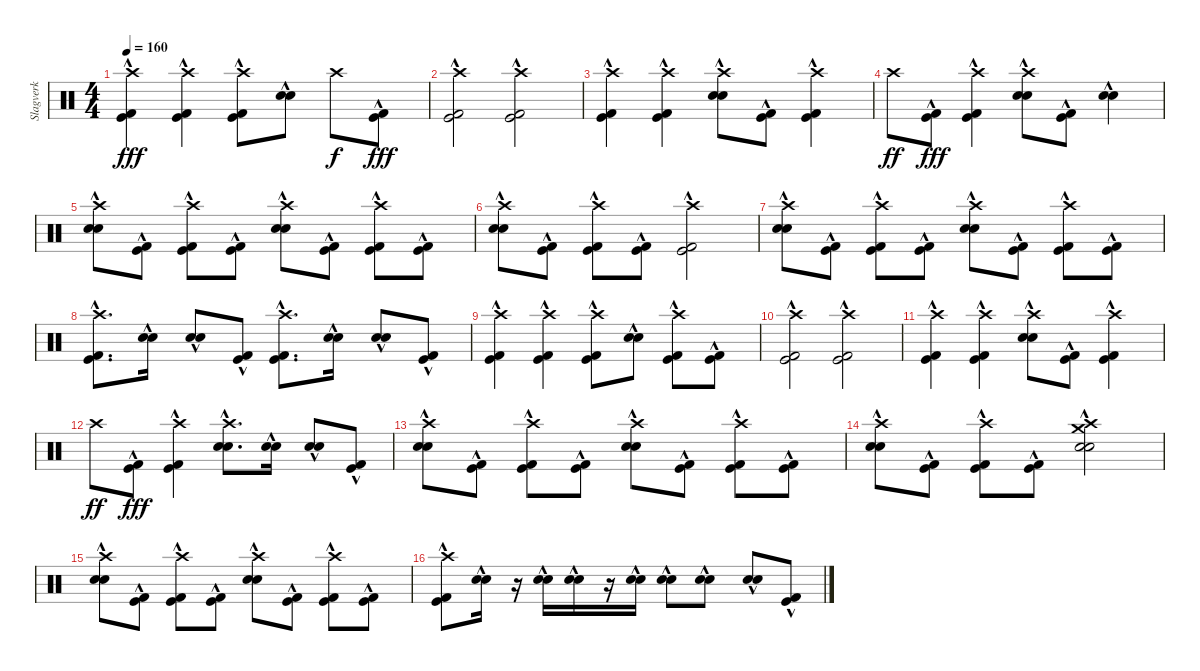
\track ("Slagverk" "Slagverk") {instrument percussion}
\staff {score}
\articulation defaults
\ts (4 4)
\tempo 160
\clef neutral
\ks c
("Crash high (hit)" "Kick (hit)"{hac} "Kick (hit) 2"{hac}).4{dy fff} ("Crash high (hit)" "Kick (hit)"{hac} "Kick (hit) 2"{hac}).4 ("Crash high (hit)" "Kick (hit)"{hac} "Kick (hit) 2"{hac}).8 ("Electric Snare (hit)"{hac} "Snare (hit) 2"{hac}).8 "Crash high (hit)".8{dy f} ("Kick (hit)"{hac} "Kick (hit) 2"{hac}).8{dy fff} |
("Crash high (hit)" "Kick (hit)"{hac} "Kick (hit) 2"{hac}).2 ("Crash high (hit)" "Kick (hit)"{hac} "Kick (hit) 2"{hac}).2 |
("Crash high (hit)" "Kick (hit)"{hac} "Kick (hit) 2"{hac}).4 ("Crash high (hit)" "Kick (hit)"{hac} "Kick (hit) 2"{hac}).4 ("Crash high (hit)" "Electric Snare (hit)"{hac} "Snare (hit) 2"{hac}).8 ("Kick (hit)"{hac} "Kick (hit) 2"{hac}).8 ("Crash high (hit)" "Kick (hit)"{hac} "Kick (hit) 2"{hac}).4 |
"Crash high (hit)".8{dy ff} ("Kick (hit)"{hac} "Kick (hit) 2"{hac}).8{dy fff} ("Crash high (hit)" "Kick (hit)"{hac} "Kick (hit) 2"{hac}).4 ("Crash high (hit)" "Electric Snare (hit)"{hac} "Snare (hit) 2"{hac}).8 ("Kick (hit)"{hac} "Kick (hit) 2"{hac}).8 ("Electric Snare (hit)"{hac} "Snare (hit) 2"{hac}).4 |
("Crash high (hit)" "Electric Snare (hit)"{hac} "Snare (hit) 2"{hac}).8 ("Kick (hit)"{hac} "Kick (hit) 2"{hac}).8 ("Crash high (hit)" "Kick (hit)"{hac} "Kick (hit) 2"{hac}).8 ("Kick (hit)"{hac} "Kick (hit) 2"{hac}).8 ("Crash high (hit)" "Electric Snare (hit)"{hac} "Snare (hit) 2"{hac}).8 ("Kick (hit)"{hac} "Kick (hit) 2"{hac}).8 ("Crash high (hit)" "Kick (hit)"{hac} "Kick (hit) 2"{hac}).8 ("Kick (hit)"{hac} "Kick (hit) 2"{hac}).8 |
("Crash high (hit)" "Electric Snare (hit)"{hac} "Snare (hit) 2"{hac}).8 ("Kick (hit)"{hac} "Kick (hit) 2"{hac}).8 ("Crash high (hit)" "Kick (hit)"{hac} "Kick (hit) 2"{hac}).8 ("Kick (hit)"{hac} "Kick (hit) 2"{hac}).8 ("Crash high (hit)" "Kick (hit)"{hac} "Kick (hit) 2"{hac}).2 |
("Crash high (hit)" "Electric Snare (hit)"{hac} "Snare (hit) 2"{hac}).8 ("Kick (hit)"{hac} "Kick (hit) 2"{hac}).8 ("Crash high (hit)" "Kick (hit)"{hac} "Kick (hit) 2"{hac}).8 ("Kick (hit)"{hac} "Kick (hit) 2"{hac}).8 ("Crash high (hit)" "Electric Snare (hit)"{hac} "Snare (hit) 2"{hac}).8 ("Kick (hit)"{hac} "Kick (hit) 2"{hac}).8 ("Crash high (hit)" "Kick (hit)"{hac} "Kick (hit) 2"{hac}).8 ("Kick (hit)"{hac} "Kick (hit) 2"{hac}).8 |
("Crash high (hit)" "Kick (hit)"{hac} "Kick (hit) 2"{hac}).8{d} ("Electric Snare (hit)"{hac} "Snare (hit) 2"{hac}).16 ("Electric Snare (hit)"{hac} "Snare (hit) 2"{hac}).8 ("Kick (hit)"{hac} "Kick (hit) 2"{hac}).8 ("Crash high (hit)" "Kick (hit)"{hac} "Kick (hit) 2"{hac}).8{d} ("Electric Snare (hit)"{hac} "Snare (hit) 2"{hac}).16 ("Electric Snare (hit)"{hac} "Snare (hit) 2"{hac}).8 ("Kick (hit)"{hac} "Kick (hit) 2"{hac}).8 |
("Crash high (hit)" "Kick (hit)"{hac} "Kick (hit) 2"{hac}).4 ("Crash high (hit)" "Kick (hit)"{hac} "Kick (hit) 2"{hac}).4 ("Crash high (hit)" "Kick (hit)"{hac} "Kick (hit) 2"{hac}).8 ("Electric Snare (hit)"{hac} "Snare (hit) 2"{hac}).8 ("Crash high (hit)" "Kick (hit)"{hac} "Kick (hit) 2"{hac}).8 ("Kick (hit)"{hac} "Kick (hit) 2"{hac}).8 |
("Crash high (hit)" "Kick (hit)"{hac} "Kick (hit) 2"{hac}).2 ("Crash high (hit)" "Kick (hit)"{hac} "Kick (hit) 2"{hac}).2 |
("Crash high (hit)" "Kick (hit)"{hac} "Kick (hit) 2"{hac}).4 ("Crash high (hit)" "Kick (hit)"{hac} "Kick (hit) 2"{hac}).4 ("Crash high (hit)" "Electric Snare (hit)"{hac} "Snare (hit) 2"{hac}).8 ("Kick (hit)"{hac} "Kick (hit) 2"{hac}).8 ("Crash high (hit)" "Kick (hit)"{hac} "Kick (hit) 2"{hac}).4 |
"Crash high (hit)".8{dy ff} ("Kick (hit)"{hac} "Kick (hit) 2"{hac}).8{dy fff} ("Crash high (hit)" "Kick (hit)"{hac} "Kick (hit) 2"{hac}).4 ("Crash high (hit)" "Electric Snare (hit)"{hac} "Snare (hit) 2"{hac}).8{d} ("Electric Snare (hit)"{hac} "Snare (hit) 2"{hac}).16 ("Electric Snare (hit)"{hac} "Snare (hit) 2"{hac}).8 ("Kick (hit)"{hac} "Kick (hit) 2"{hac}).8 |
("Crash high (hit)" "Electric Snare (hit)"{hac} "Snare (hit) 2"{hac}).8 ("Kick (hit)"{hac} "Kick (hit) 2"{hac}).8 ("Crash high (hit)" "Kick (hit)"{hac} "Kick (hit) 2"{hac}).8 ("Kick (hit)"{hac} "Kick (hit) 2"{hac}).8 ("Crash high (hit)" "Electric Snare (hit)"{hac} "Snare (hit) 2"{hac}).8 ("Kick (hit)"{hac} "Kick (hit) 2"{hac}).8 ("Crash high (hit)" "Kick (hit)"{hac} "Kick (hit) 2"{hac}).8 ("Kick (hit)"{hac} "Kick (hit) 2"{hac}).8 |
("Crash high (hit)" "Electric Snare (hit)"{hac} "Snare (hit) 2"{hac}).8 ("Kick (hit)"{hac} "Kick (hit) 2"{hac}).8 ("Crash high (hit)" "Kick (hit)"{hac} "Kick (hit) 2"{hac}).8 ("Kick (hit)"{hac} "Kick (hit) 2"{hac}).8 ("Crash high (hit)" "Crash medium (hit)" "Electric Snare (hit)"{hac} "Snare (hit) 2"{hac}).2 |
("Crash high (hit)" "Electric Snare (hit)"{hac} "Snare (hit) 2"{hac}).8 ("Kick (hit)"{hac} "Kick (hit) 2"{hac}).8 ("Crash high (hit)" "Kick (hit)"{hac} "Kick (hit) 2"{hac}).8 ("Kick (hit)"{hac} "Kick (hit) 2"{hac}).8 ("Crash high (hit)" "Electric Snare (hit)"{hac} "Snare (hit) 2"{hac}).8 ("Kick (hit)"{hac} "Kick (hit) 2"{hac}).8 ("Crash high (hit)" "Kick (hit)"{hac} "Kick (hit) 2"{hac}).8 ("Kick (hit)"{hac} "Kick (hit) 2"{hac}).8 |
("Crash high (hit)" "Kick (hit)"{hac} "Kick (hit) 2"{hac}).8 ("Electric Snare (hit)"{hac} "Snare (hit) 2"{hac}).16 r.16 ("Electric Snare (hit)"{hac} "Snare (hit) 2"{hac}).16 ("Electric Snare (hit)"{hac} "Snare (hit) 2"{hac}).16 r.16 ("Electric Snare (hit)"{hac} "Snare (hit) 2"{hac}).16 ("Electric Snare (hit)"{hac} "Snare (hit) 2"{hac}).8 ("Electric Snare (hit)"{hac} "Snare (hit) 2"{hac}).8 ("Electric Snare (hit)"{hac} "Snare (hit) 2"{hac}).8 ("Kick (hit)"{hac} "Kick (hit) 2"{hac}).8
